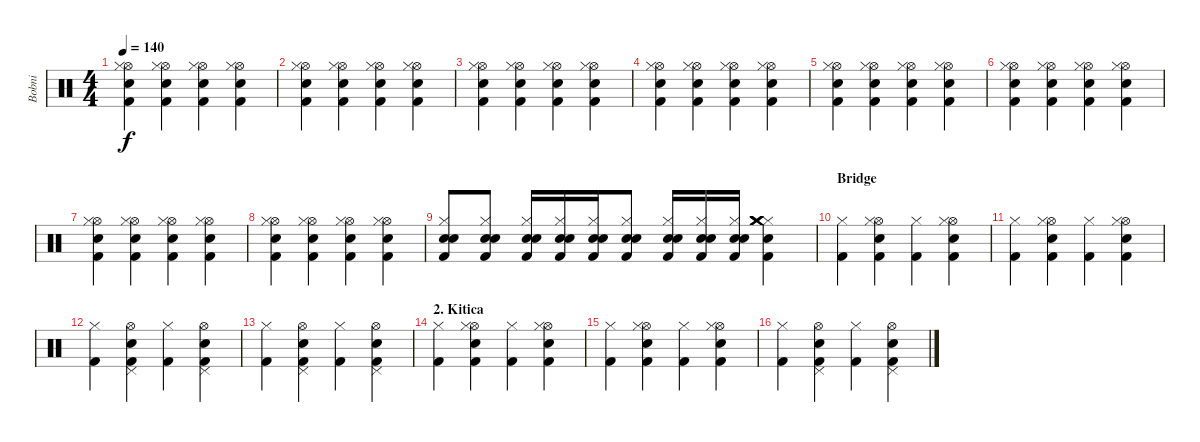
\track ("Bobni" "Bobni") {instrument percussion}
\staff {score}
\articulation defaults
\ts (4 4)
\tempo 140
\clef neutral
\ks c
("Hi-Hat (open)" "Snare (hit) 2" "Hi-Hat (closed)" "Kick (hit) 2").4{dy f} ("Hi-Hat (open)" "Snare (hit) 2" "Hi-Hat (closed)" "Kick (hit) 2").4 ("Hi-Hat (open)" "Snare (hit) 2" "Hi-Hat (closed)" "Kick (hit) 2").4 ("Hi-Hat (open)" "Snare (hit) 2" "Hi-Hat (closed)" "Kick (hit) 2").4 |
("Hi-Hat (open)" "Snare (hit) 2" "Hi-Hat (closed)" "Kick (hit) 2").4 ("Hi-Hat (open)" "Snare (hit) 2" "Hi-Hat (closed)" "Kick (hit) 2").4 ("Hi-Hat (open)" "Snare (hit) 2" "Hi-Hat (closed)" "Kick (hit) 2").4 ("Hi-Hat (open)" "Snare (hit) 2" "Hi-Hat (closed)" "Kick (hit) 2").4 |
("Hi-Hat (open)" "Snare (hit) 2" "Hi-Hat (closed)" "Kick (hit) 2").4 ("Hi-Hat (open)" "Snare (hit) 2" "Hi-Hat (closed)" "Kick (hit) 2").4 ("Hi-Hat (open)" "Snare (hit) 2" "Hi-Hat (closed)" "Kick (hit) 2").4 ("Hi-Hat (open)" "Snare (hit) 2" "Hi-Hat (closed)" "Kick (hit) 2").4 |
("Hi-Hat (open)" "Snare (hit) 2" "Hi-Hat (closed)" "Kick (hit) 2").4 ("Hi-Hat (open)" "Snare (hit) 2" "Hi-Hat (closed)" "Kick (hit) 2").4 ("Hi-Hat (open)" "Snare (hit) 2" "Hi-Hat (closed)" "Kick (hit) 2").4 ("Hi-Hat (open)" "Snare (hit) 2" "Hi-Hat (closed)" "Kick (hit) 2").4 |
("Hi-Hat (open)" "Snare (hit) 2" "Hi-Hat (closed)" "Kick (hit) 2").4 ("Hi-Hat (open)" "Snare (hit) 2" "Hi-Hat (closed)" "Kick (hit) 2").4 ("Hi-Hat (open)" "Snare (hit) 2" "Hi-Hat (closed)" "Kick (hit) 2").4 ("Hi-Hat (open)" "Snare (hit) 2" "Hi-Hat (closed)" "Kick (hit) 2").4 |
("Hi-Hat (open)" "Snare (hit) 2" "Hi-Hat (closed)" "Kick (hit) 2").4 ("Hi-Hat (open)" "Snare (hit) 2" "Hi-Hat (closed)" "Kick (hit) 2").4 ("Hi-Hat (open)" "Snare (hit) 2" "Hi-Hat (closed)" "Kick (hit) 2").4 ("Hi-Hat (open)" "Snare (hit) 2" "Hi-Hat (closed)" "Kick (hit) 2").4 |
("Hi-Hat (open)" "Snare (hit) 2" "Hi-Hat (closed)" "Kick (hit) 2").4 ("Hi-Hat (open)" "Snare (hit) 2" "Hi-Hat (closed)" "Kick (hit) 2").4 ("Hi-Hat (open)" "Snare (hit) 2" "Hi-Hat (closed)" "Kick (hit) 2").4 ("Hi-Hat (open)" "Snare (hit) 2" "Hi-Hat (closed)" "Kick (hit) 2").4 |
("Hi-Hat (open)" "Snare (hit) 2" "Hi-Hat (closed)" "Kick (hit) 2").4 ("Hi-Hat (open)" "Snare (hit) 2" "Hi-Hat (closed)" "Kick (hit) 2").4 ("Hi-Hat (open)" "Snare (hit) 2" "Hi-Hat (closed)" "Kick (hit) 2").4 ("Hi-Hat (open)" "Snare (hit) 2" "Hi-Hat (closed)" "Kick (hit) 2").4 |
("Hi-Hat (closed)" "Snare (hit) 2" "Snare (hit) 2" "Kick (hit) 2").8 ("Hi-Hat (closed)" "Snare (hit) 2" "Snare (hit) 2" "Kick (hit) 2").8 ("Hi-Hat (closed)" "Snare (hit) 2" "Snare (hit) 2" "Kick (hit) 2").16 ("Hi-Hat (closed)" "Snare (hit) 2" "Snare (hit) 2" "Kick (hit) 2").16 ("Hi-Hat (closed)" "Snare (hit) 2" "Snare (hit) 2" "Kick (hit) 2").16 ("Hi-Hat (closed)" "Snare (hit) 2" "Snare (hit) 2" "Kick (hit) 2").8 ("Hi-Hat (closed)" "Snare (hit) 2" "Snare (hit) 2" "Kick (hit) 2").16 ("Hi-Hat (closed)" "Snare (hit) 2" "Snare (hit) 2" "Kick (hit) 2").16 ("Hi-Hat (closed)" "Snare (hit) 2" "Snare (hit) 2" "Kick (hit) 2").16 ("Hi-Hat (closed)" "Crash medium (hit)" "Snare (hit) 2" "Crash medium (hit)" "Crash medium (hit)" "Kick (hit) 2").4 |
\section ("" "Bridge")
("Hi-Hat (closed)" "Kick (hit) 2").4 ("Hi-Hat (open)" "Snare (hit) 2" "Hi-Hat (closed)" "Kick (hit) 2").4 ("Hi-Hat (closed)" "Kick (hit) 2").4 ("Hi-Hat (open)" "Snare (hit) 2" "Hi-Hat (closed)" "Kick (hit) 2").4 |
("Hi-Hat (closed)" "Kick (hit) 2").4 ("Hi-Hat (open)" "Snare (hit) 2" "Hi-Hat (closed)" "Kick (hit) 2").4 ("Hi-Hat (closed)" "Kick (hit) 2").4 ("Hi-Hat (open)" "Snare (hit) 2" "Hi-Hat (closed)" "Kick (hit) 2").4 |
("Hi-Hat (closed)" "Kick (hit) 2").4 ("Hi-Hat (open)" "Snare (hit) 2" "Pedal Hi-Hat (hit)" "Kick (hit) 2").4 ("Hi-Hat (closed)" "Kick (hit) 2").4 ("Hi-Hat (open)" "Snare (hit) 2" "Pedal Hi-Hat (hit)" "Kick (hit) 2").4 |
("Hi-Hat (closed)" "Kick (hit) 2").4 ("Hi-Hat (open)" "Snare (hit) 2" "Pedal Hi-Hat (hit)" "Kick (hit) 2").4 ("Hi-Hat (closed)" "Kick (hit) 2").4 ("Hi-Hat (open)" "Snare (hit) 2" "Pedal Hi-Hat (hit)" "Kick (hit) 2").4 |
\section ("" "2. Kitica")
("Hi-Hat (closed)" "Kick (hit) 2").4 ("Hi-Hat (open)" "Snare (hit) 2" "Hi-Hat (closed)" "Kick (hit) 2").4 ("Hi-Hat (closed)" "Kick (hit) 2").4 ("Hi-Hat (open)" "Snare (hit) 2" "Hi-Hat (closed)" "Kick (hit) 2").4 |
("Hi-Hat (closed)" "Kick (hit) 2").4 ("Hi-Hat (open)" "Snare (hit) 2" "Hi-Hat (closed)" "Kick (hit) 2").4 ("Hi-Hat (closed)" "Kick (hit) 2").4 ("Hi-Hat (open)" "Snare (hit) 2" "Hi-Hat (closed)" "Kick (hit) 2").4 |
("Hi-Hat (closed)" "Kick (hit) 2").4 ("Hi-Hat (open)" "Snare (hit) 2" "Pedal Hi-Hat (hit)" "Kick (hit) 2").4 ("Hi-Hat (closed)" "Kick (hit) 2").4 ("Hi-Hat (open)" "Snare (hit) 2" "Pedal Hi-Hat (hit)" "Kick (hit) 2").4
